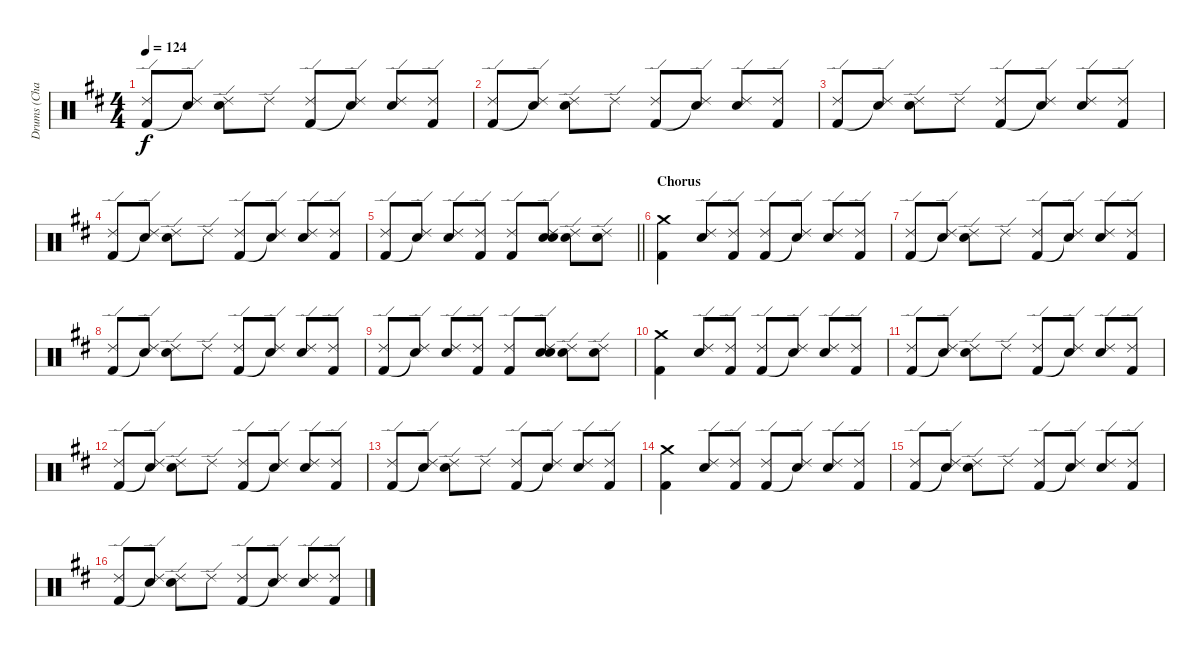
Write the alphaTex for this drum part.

\track ("Drums (Charlie)" "Drums (Cha") {instrument percussion}
\staff {score}
\articulation defaults
\ts (4 4)
\tempo 124
\clef neutral
\ks d
("Ride (edge) 2" "Kick (hit) 2").8{dy f} ("Ride (edge) 2" "Snare (hit)"{t}).8 ("Ride (edge) 2" "Snare (hit) 2").8 "Ride (edge) 2".8 ("Ride (edge) 2" "Kick (hit) 2").8 ("Ride (edge) 2" "Snare (hit)"{t}).8 ("Ride (edge) 2" "Snare (hit) 2").8 ("Ride (edge) 2" "Kick (hit) 2").8 |
("Ride (edge) 2" "Kick (hit) 2").8 ("Ride (edge) 2" "Snare (hit)"{t}).8 ("Ride (edge) 2" "Snare (hit) 2").8 "Ride (edge) 2".8 ("Ride (edge) 2" "Kick (hit) 2").8 ("Ride (edge) 2" "Snare (hit)"{t}).8 ("Ride (edge) 2" "Snare (hit) 2").8 ("Ride (edge) 2" "Kick (hit) 2").8 |
("Ride (edge) 2" "Kick (hit) 2").8 ("Ride (edge) 2" "Snare (hit)"{t}).8 ("Ride (edge) 2" "Snare (hit) 2").8 "Ride (edge) 2".8 ("Ride (edge) 2" "Kick (hit) 2").8 ("Ride (edge) 2" "Snare (hit)"{t}).8 ("Ride (edge) 2" "Snare (hit) 2").8 ("Ride (edge) 2" "Kick (hit) 2").8 |
("Ride (edge) 2" "Kick (hit) 2").8 ("Ride (edge) 2" "Snare (hit)"{t}).8 ("Ride (edge) 2" "Snare (hit) 2").8 "Ride (edge) 2".8 ("Ride (edge) 2" "Kick (hit) 2").8 ("Ride (edge) 2" "Snare (hit)"{t}).8 ("Ride (edge) 2" "Snare (hit) 2").8 ("Ride (edge) 2" "Kick (hit) 2").8 |
\barLineRight lightlight
("Ride (edge) 2" "Kick (hit) 2").8 ("Ride (edge) 2" "Snare (hit)"{t}).8 ("Ride (edge) 2" "Snare (hit) 2").8 ("Ride (edge) 2" "Kick (hit) 2").8 ("Ride (edge) 2" "Kick (hit) 2").8 ("Ride (edge) 2" "Snare (hit) 2" "Snare (hit)").8 ("Ride (edge) 2" "Snare (hit) 2").8 ("Ride (edge) 2" "Snare (hit) 2").8 |
\section ("" "Chorus")
("Crash medium (hit)" "Kick (hit) 2").4 ("Ride (edge) 2" "Snare (hit) 2").8 ("Ride (edge) 2" "Kick (hit) 2").8 ("Ride (edge) 2" "Kick (hit) 2").8 ("Ride (edge) 2" "Snare (hit)"{t}).8 ("Ride (edge) 2" "Snare (hit) 2").8 ("Ride (edge) 2" "Kick (hit) 2").8 |
("Ride (edge) 2" "Kick (hit) 2").8 ("Ride (edge) 2" "Snare (hit)"{t}).8 ("Ride (edge) 2" "Snare (hit) 2").8 "Ride (edge) 2".8 ("Ride (edge) 2" "Kick (hit) 2").8 ("Ride (edge) 2" "Snare (hit)"{t}).8 ("Ride (edge) 2" "Snare (hit) 2").8 ("Ride (edge) 2" "Kick (hit) 2").8 |
("Ride (edge) 2" "Kick (hit) 2").8 ("Ride (edge) 2" "Snare (hit)"{t}).8 ("Ride (edge) 2" "Snare (hit) 2").8 "Ride (edge) 2".8 ("Ride (edge) 2" "Kick (hit) 2").8 ("Ride (edge) 2" "Snare (hit)"{t}).8 ("Ride (edge) 2" "Snare (hit) 2").8 ("Ride (edge) 2" "Kick (hit) 2").8 |
("Ride (edge) 2" "Kick (hit) 2").8 ("Ride (edge) 2" "Snare (hit)"{t}).8 ("Ride (edge) 2" "Snare (hit) 2").8 ("Ride (edge) 2" "Kick (hit) 2").8 ("Ride (edge) 2" "Kick (hit) 2").8 ("Ride (edge) 2" "Snare (hit) 2" "Snare (hit)").8 ("Ride (edge) 2" "Snare (hit) 2").8 ("Ride (edge) 2" "Snare (hit) 2").8 |
("Crash medium (hit)" "Kick (hit) 2").4 ("Ride (edge) 2" "Snare (hit) 2").8 ("Ride (edge) 2" "Kick (hit) 2").8 ("Ride (edge) 2" "Kick (hit) 2").8 ("Ride (edge) 2" "Snare (hit)"{t}).8 ("Ride (edge) 2" "Snare (hit) 2").8 ("Ride (edge) 2" "Kick (hit) 2").8 |
("Ride (edge) 2" "Kick (hit) 2").8 ("Ride (edge) 2" "Snare (hit)"{t}).8 ("Ride (edge) 2" "Snare (hit) 2").8 "Ride (edge) 2".8 ("Ride (edge) 2" "Kick (hit) 2").8 ("Ride (edge) 2" "Snare (hit)"{t}).8 ("Ride (edge) 2" "Snare (hit) 2").8 ("Ride (edge) 2" "Kick (hit) 2").8 |
("Ride (edge) 2" "Kick (hit) 2").8 ("Ride (edge) 2" "Snare (hit)"{t}).8 ("Ride (edge) 2" "Snare (hit) 2").8 "Ride (edge) 2".8 ("Ride (edge) 2" "Kick (hit) 2").8 ("Ride (edge) 2" "Snare (hit)"{t}).8 ("Ride (edge) 2" "Snare (hit) 2").8 ("Ride (edge) 2" "Kick (hit) 2").8 |
("Ride (edge) 2" "Kick (hit) 2").8 ("Ride (edge) 2" "Snare (hit)"{t}).8 ("Ride (edge) 2" "Snare (hit) 2").8 "Ride (edge) 2".8 ("Ride (edge) 2" "Kick (hit) 2").8 ("Ride (edge) 2" "Snare (hit)"{t}).8 ("Ride (edge) 2" "Snare (hit) 2").8 ("Ride (edge) 2" "Kick (hit) 2").8 |
("Crash medium (hit)" "Kick (hit) 2").4 ("Ride (edge) 2" "Snare (hit) 2").8 ("Ride (edge) 2" "Kick (hit) 2").8 ("Ride (edge) 2" "Kick (hit) 2").8 ("Ride (edge) 2" "Snare (hit)"{t}).8 ("Ride (edge) 2" "Snare (hit) 2").8 ("Ride (edge) 2" "Kick (hit) 2").8 |
("Ride (edge) 2" "Kick (hit) 2").8 ("Ride (edge) 2" "Snare (hit)"{t}).8 ("Ride (edge) 2" "Snare (hit) 2").8 "Ride (edge) 2".8 ("Ride (edge) 2" "Kick (hit) 2").8 ("Ride (edge) 2" "Snare (hit)"{t}).8 ("Ride (edge) 2" "Snare (hit) 2").8 ("Ride (edge) 2" "Kick (hit) 2").8 |
("Ride (edge) 2" "Kick (hit) 2").8 ("Ride (edge) 2" "Snare (hit)"{t}).8 ("Ride (edge) 2" "Snare (hit) 2").8 "Ride (edge) 2".8 ("Ride (edge) 2" "Kick (hit) 2").8 ("Ride (edge) 2" "Snare (hit)"{t}).8 ("Ride (edge) 2" "Snare (hit) 2").8 ("Ride (edge) 2" "Kick (hit) 2").8
